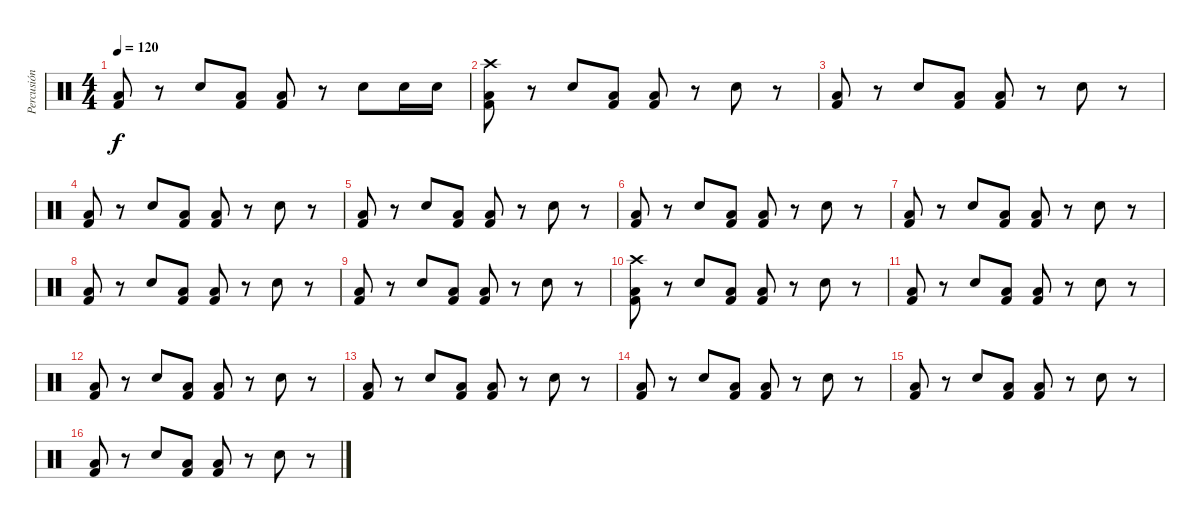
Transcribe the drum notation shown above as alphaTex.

\track ("Percusión" "Percusión") {instrument percussion}
\staff {score}
\articulation defaults
\ts (4 4)
\tempo 120
\clef neutral
\ks c
("Kick (hit) 2" "Low Tom (hit)").8{dy f} r.8 "Snare (hit) 2".8 ("Kick (hit) 2" "Low Tom (hit)").8 ("Kick (hit) 2" "Low Tom (hit)").8 r.8 "Snare (hit) 2".8 "Snare (hit) 2".16 "Snare (hit) 2".16 |
("Crash high (hit)" "Kick (hit) 2" "Low Tom (hit)").8{volume 16} r.8 "Snare (hit) 2".8 ("Kick (hit) 2" "Low Tom (hit)").8 ("Kick (hit) 2" "Low Tom (hit)").8 r.8 "Snare (hit) 2".8 r.8 |
("Kick (hit) 2" "Low Tom (hit)").8 r.8 "Snare (hit) 2".8 ("Kick (hit) 2" "Low Tom (hit)").8 ("Kick (hit) 2" "Low Tom (hit)").8 r.8 "Snare (hit) 2".8 r.8 |
("Kick (hit) 2" "Low Tom (hit)").8 r.8 "Snare (hit) 2".8 ("Kick (hit) 2" "Low Tom (hit)").8 ("Kick (hit) 2" "Low Tom (hit)").8 r.8 "Snare (hit) 2".8 r.8 |
("Kick (hit) 2" "Low Tom (hit)").8 r.8 "Snare (hit) 2".8 ("Kick (hit) 2" "Low Tom (hit)").8 ("Kick (hit) 2" "Low Tom (hit)").8 r.8 "Snare (hit) 2".8 r.8 |
("Kick (hit) 2" "Low Tom (hit)").8 r.8 "Snare (hit) 2".8 ("Kick (hit) 2" "Low Tom (hit)").8 ("Kick (hit) 2" "Low Tom (hit)").8 r.8 "Snare (hit) 2".8 r.8 |
("Kick (hit) 2" "Low Tom (hit)").8 r.8 "Snare (hit) 2".8 ("Kick (hit) 2" "Low Tom (hit)").8 ("Kick (hit) 2" "Low Tom (hit)").8 r.8 "Snare (hit) 2".8 r.8 |
("Kick (hit) 2" "Low Tom (hit)").8 r.8 "Snare (hit) 2".8 ("Kick (hit) 2" "Low Tom (hit)").8 ("Kick (hit) 2" "Low Tom (hit)").8 r.8 "Snare (hit) 2".8 r.8 |
("Kick (hit) 2" "Low Tom (hit)").8 r.8 "Snare (hit) 2".8 ("Kick (hit) 2" "Low Tom (hit)").8 ("Kick (hit) 2" "Low Tom (hit)").8 r.8 "Snare (hit) 2".8 r.8 |
("Crash high (hit)" "Kick (hit) 2" "Low Tom (hit)").8 r.8 "Snare (hit) 2".8 ("Kick (hit) 2" "Low Tom (hit)").8 ("Kick (hit) 2" "Low Tom (hit)").8 r.8 "Snare (hit) 2".8 r.8 |
("Kick (hit) 2" "Low Tom (hit)").8 r.8 "Snare (hit) 2".8 ("Kick (hit) 2" "Low Tom (hit)").8 ("Kick (hit) 2" "Low Tom (hit)").8 r.8 "Snare (hit) 2".8 r.8 |
("Kick (hit) 2" "Low Tom (hit)").8 r.8 "Snare (hit) 2".8 ("Kick (hit) 2" "Low Tom (hit)").8 ("Kick (hit) 2" "Low Tom (hit)").8 r.8 "Snare (hit) 2".8 r.8 |
("Kick (hit) 2" "Low Tom (hit)").8 r.8 "Snare (hit) 2".8 ("Kick (hit) 2" "Low Tom (hit)").8 ("Kick (hit) 2" "Low Tom (hit)").8 r.8 "Snare (hit) 2".8 r.8 |
("Kick (hit) 2" "Low Tom (hit)").8 r.8 "Snare (hit) 2".8 ("Kick (hit) 2" "Low Tom (hit)").8 ("Kick (hit) 2" "Low Tom (hit)").8 r.8 "Snare (hit) 2".8 r.8 |
("Kick (hit) 2" "Low Tom (hit)").8 r.8 "Snare (hit) 2".8 ("Kick (hit) 2" "Low Tom (hit)").8 ("Kick (hit) 2" "Low Tom (hit)").8 r.8 "Snare (hit) 2".8 r.8 |
("Kick (hit) 2" "Low Tom (hit)").8 r.8 "Snare (hit) 2".8 ("Kick (hit) 2" "Low Tom (hit)").8 ("Kick (hit) 2" "Low Tom (hit)").8 r.8 "Snare (hit) 2".8 r.8
